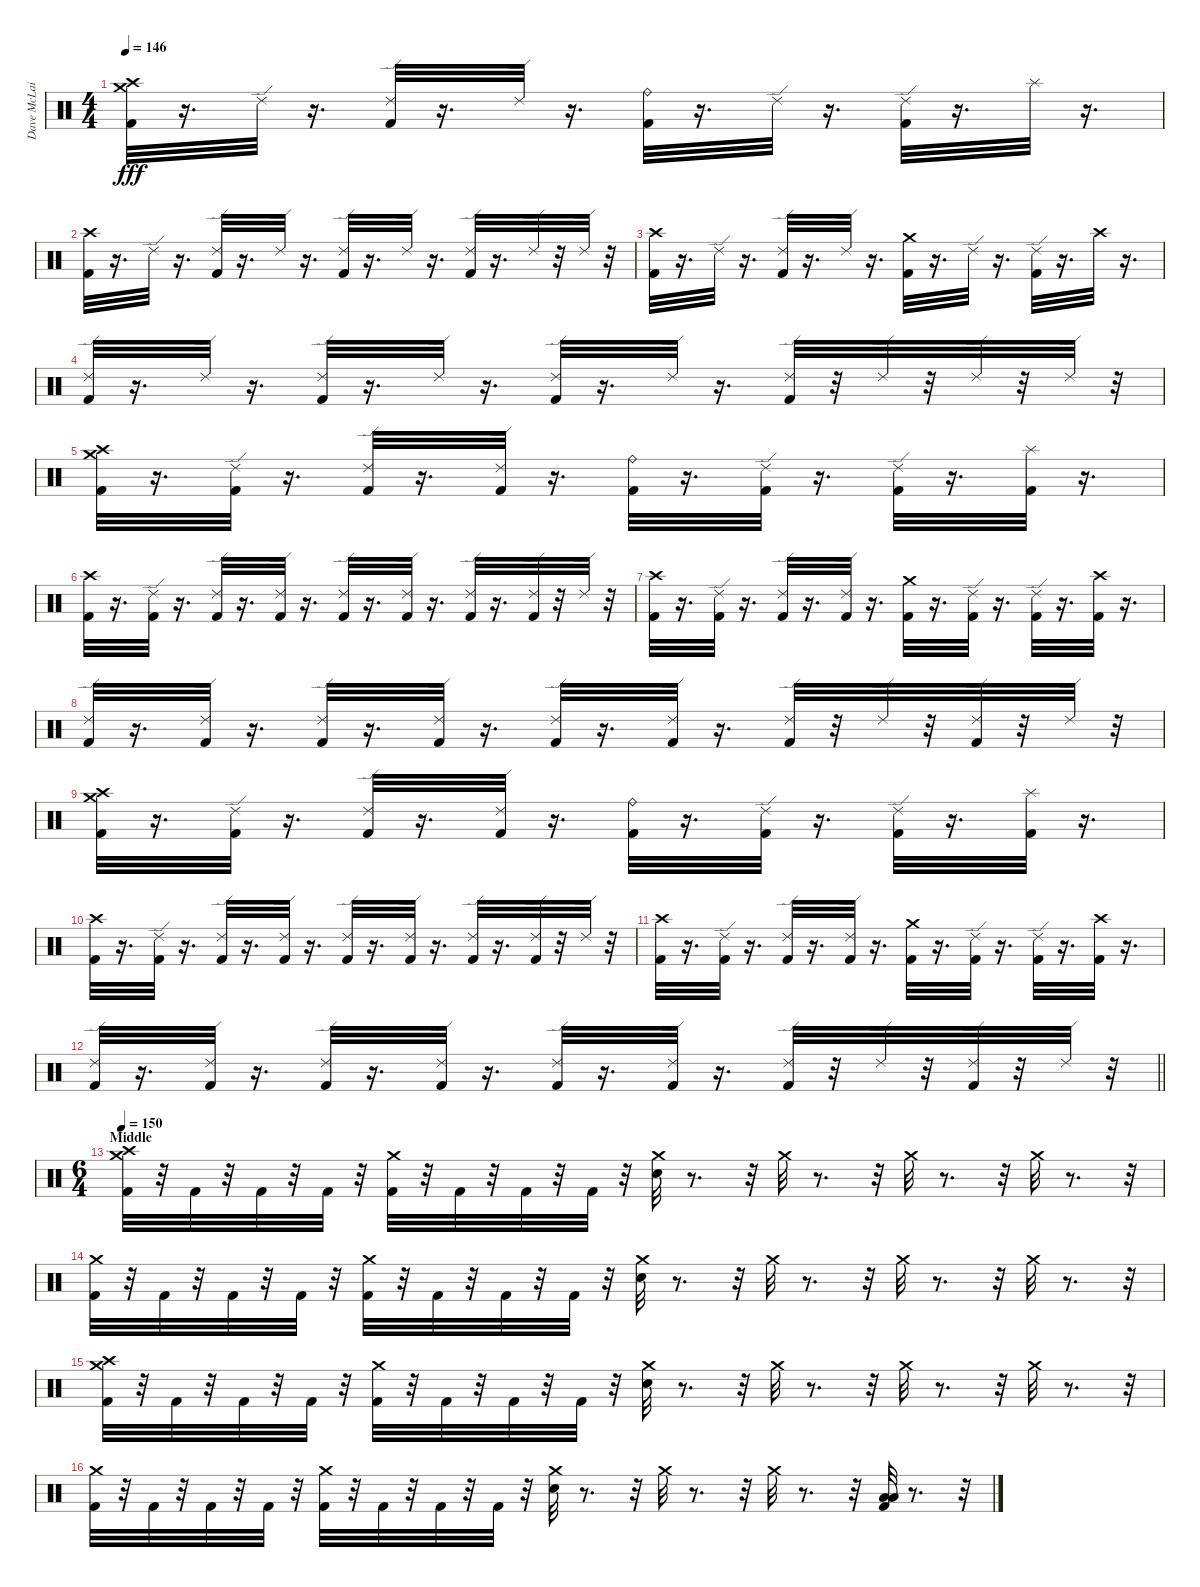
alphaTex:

\track ("Dave McLain" "Dave McLai") {instrument percussion}
\staff {score}
\articulation defaults
\ts (4 4)
\tempo 146
\clef neutral
\ks c
("Crash medium (hit)" "Crash high (hit)" "Kick (hit) 2").32{dy fff} r.16{d} "Ride (edge) 2".32 r.16{d} ("Kick (hit) 2" "Ride (edge) 2").32 r.16{d} "Ride (edge) 2".32 r.16{d} ("Ride (bell)" "Kick (hit) 2").32 r.16{d} "Ride (edge) 2".32 r.16{d} ("Kick (hit) 2" "Ride (edge) 2").32 r.16{d} "Splash (hit)".32 r.16{d} |
("Crash high (hit)" "Kick (hit) 2").32 r.16{d} "Ride (edge) 2".32 r.16{d} ("Kick (hit) 2" "Ride (edge) 2").32 r.16{d} "Ride (edge) 2".32 r.16{d} ("Kick (hit) 2" "Ride (edge) 2").32 r.16{d} "Ride (edge) 2".32 r.16{d} ("Kick (hit) 2" "Ride (edge) 2").32 r.16{d} "Ride (edge) 2".32 r.32 "Ride (edge) 2".32 r.32 |
("Crash high (hit)" "Kick (hit) 2").32 r.16{d} "Ride (edge) 2".32 r.16{d} ("Kick (hit) 2" "Ride (edge) 2").32 r.16{d} "Ride (edge) 2".32 r.16{d} ("Crash medium (hit)" "Kick (hit) 2").32 r.16{d} "Ride (edge) 2".32 r.16{d} ("Kick (hit) 2" "Ride (edge) 2").32 r.16{d} "Crash high (hit)".32 r.16{d} |
("Ride (edge) 2" "Kick (hit) 2").32 r.16{d} "Ride (edge) 2".32 r.16{d} ("Kick (hit) 2" "Ride (edge) 2").32 r.16{d} "Ride (edge) 2".32 r.16{d} ("Kick (hit) 2" "Ride (edge) 2").32 r.16{d} "Ride (edge) 2".32 r.16{d} ("Kick (hit) 2" "Ride (edge) 2").32 r.32 "Ride (edge) 2".32 r.32 "Ride (edge) 2".32 r.32 "Ride (edge) 2".32 r.32 |
("Crash medium (hit)" "Crash high (hit)" "Kick (hit) 2").32 r.16{d} ("Kick (hit) 2" "Ride (edge) 2").32 r.16{d} ("Kick (hit) 2" "Ride (edge) 2").32 r.16{d} ("Kick (hit) 2" "Ride (edge) 2").32 r.16{d} ("Ride (bell)" "Kick (hit) 2").32 r.16{d} ("Kick (hit) 2" "Ride (edge) 2").32 r.16{d} ("Kick (hit) 2" "Ride (edge) 2").32 r.16{d} ("Kick (hit) 2" "Splash (hit)").32 r.16{d} |
("Crash high (hit)" "Kick (hit) 2").32 r.16{d} ("Kick (hit) 2" "Ride (edge) 2").32 r.16{d} ("Kick (hit) 2" "Ride (edge) 2").32 r.16{d} ("Kick (hit) 2" "Ride (edge) 2").32 r.16{d} ("Kick (hit) 2" "Ride (edge) 2").32 r.16{d} ("Kick (hit) 2" "Ride (edge) 2").32 r.16{d} ("Kick (hit) 2" "Ride (edge) 2").32 r.16{d} ("Kick (hit) 2" "Ride (edge) 2").32 r.32 "Ride (edge) 2".32 r.32 |
("Crash high (hit)" "Kick (hit) 2").32 r.16{d} ("Kick (hit) 2" "Ride (edge) 2").32 r.16{d} ("Kick (hit) 2" "Ride (edge) 2").32 r.16{d} ("Kick (hit) 2" "Ride (edge) 2").32 r.16{d} ("Crash medium (hit)" "Kick (hit) 2").32 r.16{d} ("Kick (hit) 2" "Ride (edge) 2").32 r.16{d} ("Kick (hit) 2" "Ride (edge) 2").32 r.16{d} ("Kick (hit) 2" "Crash high (hit)").32 r.16{d} |
("Ride (edge) 2" "Kick (hit) 2").32 r.16{d} ("Kick (hit) 2" "Ride (edge) 2").32 r.16{d} ("Kick (hit) 2" "Ride (edge) 2").32 r.16{d} ("Kick (hit) 2" "Ride (edge) 2").32 r.16{d} ("Kick (hit) 2" "Ride (edge) 2").32 r.16{d} ("Kick (hit) 2" "Ride (edge) 2").32 r.16{d} ("Kick (hit) 2" "Ride (edge) 2").32 r.32 "Ride (edge) 2".32 r.32 ("Kick (hit) 2" "Ride (edge) 2").32 r.32 "Ride (edge) 2".32 r.32 |
("Crash medium (hit)" "Crash high (hit)" "Kick (hit) 2").32 r.16{d} ("Kick (hit) 2" "Ride (edge) 2").32 r.16{d} ("Kick (hit) 2" "Ride (edge) 2").32 r.16{d} ("Kick (hit) 2" "Ride (edge) 2").32 r.16{d} ("Ride (bell)" "Kick (hit) 2").32 r.16{d} ("Kick (hit) 2" "Ride (edge) 2").32 r.16{d} ("Kick (hit) 2" "Ride (edge) 2").32 r.16{d} ("Kick (hit) 2" "Splash (hit)").32 r.16{d} |
("Crash high (hit)" "Kick (hit) 2").32 r.16{d} ("Kick (hit) 2" "Ride (edge) 2").32 r.16{d} ("Kick (hit) 2" "Ride (edge) 2").32 r.16{d} ("Kick (hit) 2" "Ride (edge) 2").32 r.16{d} ("Kick (hit) 2" "Ride (edge) 2").32 r.16{d} ("Kick (hit) 2" "Ride (edge) 2").32 r.16{d} ("Kick (hit) 2" "Ride (edge) 2").32 r.16{d} ("Kick (hit) 2" "Ride (edge) 2").32 r.32 "Ride (edge) 2".32 r.32 |
("Crash high (hit)" "Kick (hit) 2").32 r.16{d} ("Kick (hit) 2" "Ride (edge) 2").32 r.16{d} ("Kick (hit) 2" "Ride (edge) 2").32 r.16{d} ("Kick (hit) 2" "Ride (edge) 2").32 r.16{d} ("Crash medium (hit)" "Kick (hit) 2").32 r.16{d} ("Kick (hit) 2" "Ride (edge) 2").32 r.16{d} ("Kick (hit) 2" "Ride (edge) 2").32 r.16{d} ("Kick (hit) 2" "Crash high (hit)").32 r.16{d} |
\barLineRight lightlight
("Ride (edge) 2" "Kick (hit) 2").32 r.16{d} ("Kick (hit) 2" "Ride (edge) 2").32 r.16{d} ("Kick (hit) 2" "Ride (edge) 2").32 r.16{d} ("Kick (hit) 2" "Ride (edge) 2").32 r.16{d} ("Kick (hit) 2" "Ride (edge) 2").32 r.16{d} ("Kick (hit) 2" "Ride (edge) 2").32 r.16{d} ("Kick (hit) 2" "Ride (edge) 2").32 r.32 "Ride (edge) 2".32 r.32 ("Kick (hit) 2" "Ride (edge) 2").32 r.32 "Ride (edge) 2".32 r.32 |
\ts (6 4)
\section ("" "Middle")
\tempo 150
("Crash medium (hit)" "Crash high (hit)" "Kick (hit) 2").32 r.32 "Kick (hit) 2".32 r.32 "Kick (hit) 2".32 r.32 "Kick (hit) 2".32 r.32 ("Crash medium (hit)" "Kick (hit) 2").32 r.32 "Kick (hit) 2".32 r.32 "Kick (hit) 2".32 r.32 "Kick (hit) 2".32 r.32 ("Snare (hit) 2" "Crash medium (hit)").32 r.8{d} r.32 "Crash medium (hit)".32 r.8{d} r.32 "Crash medium (hit)".32 r.8{d} r.32 "Crash medium (hit)".32 r.8{d} r.32 |
("Kick (hit) 2" "Crash medium (hit)").32 r.32 "Kick (hit) 2".32 r.32 "Kick (hit) 2".32 r.32 "Kick (hit) 2".32 r.32 ("Kick (hit) 2" "Crash medium (hit)").32 r.32 "Kick (hit) 2".32 r.32 "Kick (hit) 2".32 r.32 "Kick (hit) 2".32 r.32 ("Snare (hit) 2" "Crash medium (hit)").32 r.8{d} r.32 "Crash medium (hit)".32 r.8{d} r.32 "Crash medium (hit)".32 r.8{d} r.32 "Crash medium (hit)".32 r.8{d} r.32 |
("Crash medium (hit)" "Crash high (hit)" "Kick (hit) 2").32 r.32 "Kick (hit) 2".32 r.32 "Kick (hit) 2".32 r.32 "Kick (hit) 2".32 r.32 ("Crash medium (hit)" "Kick (hit) 2").32 r.32 "Kick (hit) 2".32 r.32 "Kick (hit) 2".32 r.32 "Kick (hit) 2".32 r.32 ("Snare (hit) 2" "Crash medium (hit)").32 r.8{d} r.32 "Crash medium (hit)".32 r.8{d} r.32 "Crash medium (hit)".32 r.8{d} r.32 "Crash medium (hit)".32 r.8{d} r.32 |
("Kick (hit) 2" "Crash medium (hit)").32 r.32 "Kick (hit) 2".32 r.32 "Kick (hit) 2".32 r.32 "Kick (hit) 2".32 r.32 ("Kick (hit) 2" "Crash medium (hit)").32 r.32 "Kick (hit) 2".32 r.32 "Kick (hit) 2".32 r.32 "Kick (hit) 2".32 r.32 ("Snare (hit) 2" "Crash medium (hit)").32 r.8{d} r.32 "Crash medium (hit)".32 r.8{d} r.32 "Crash medium (hit)".32 r.8{d} r.32 ("Low Tom (hit)" "Low Floor Tom (hit)" "Kick (hit) 2").32 r.8{d} r.32
